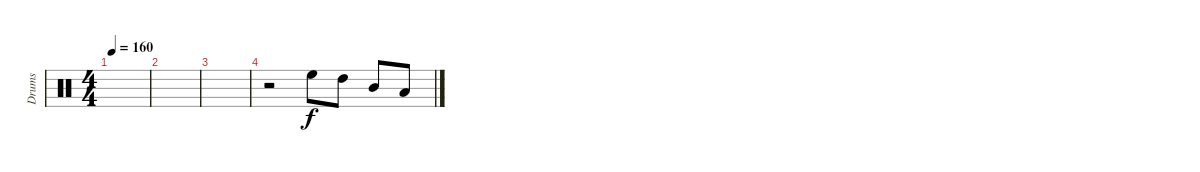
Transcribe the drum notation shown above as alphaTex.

\track ("Drums" "Drums") {instrument percussion}
\staff {score}
\articulation defaults
\ts (4 4)
\tempo 160
\clef neutral
\ks c
|
|
|
r.2 "High Floor Tom (hit)".8 "High Tom (hit)".8 "Mid Tom (hit)".8 "Low Tom (hit)".8
